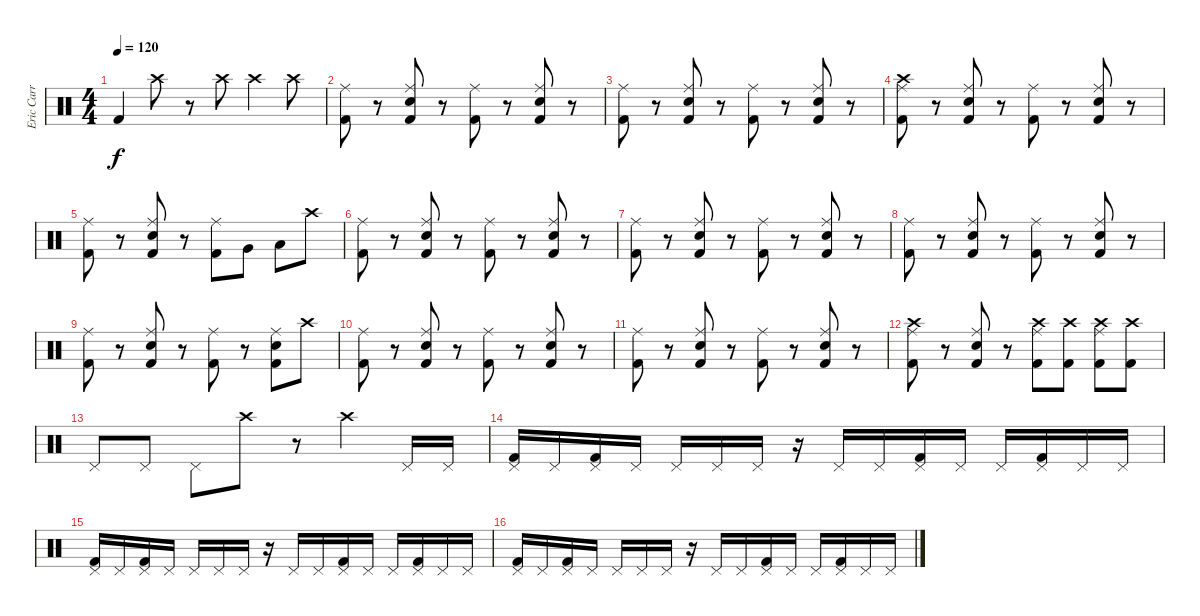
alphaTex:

\track ("Eric Carr" "Eric Carr") {instrument percussion}
\staff {score}
\articulation defaults
\ts (4 4)
\tempo 120
\clef neutral
\ks c "Kick (hit) 2".4{dy f} "Crash high (hit)".8
r.8 "Crash high (hit)".8 "Crash high (hit)".4 "Crash high (hit)".8 |
("Kick (hit) 2" "Ride (middle)").8 r.8 ("Kick (hit) 2" "Ride (middle)" "Snare (hit) 2").8 r.8 ("Kick (hit) 2" "Ride (middle)").8 r.8 ("Kick (hit) 2" "Ride (middle)" "Snare (hit) 2").8 r.8 |
("Kick (hit) 2" "Ride (middle)").8 r.8 ("Kick (hit) 2" "Ride (middle)" "Snare (hit) 2").8 r.8 ("Kick (hit) 2" "Ride (middle)").8 r.8 ("Kick (hit) 2" "Ride (middle)" "Snare (hit) 2").8 r.8 |
("Kick (hit) 2" "Ride (middle)" "Crash high (hit)").8 r.8 ("Kick (hit) 2" "Ride (middle)" "Snare (hit) 2").8 r.8 ("Kick (hit) 2" "Ride (middle)").8 r.8 ("Kick (hit) 2" "Ride (middle)" "Snare (hit) 2").8 r.8 |
("Kick (hit) 2" "Ride (middle)").8 r.8 ("Kick (hit) 2" "Ride (middle)" "Snare (hit) 2").8 r.8 ("Kick (hit) 2" "Ride (middle)").8 "Very Low Tom (hit)".8 "Low Tom (hit)".8 "Crash high (hit)".8 |
("Kick (hit) 2" "Ride (middle)").8 r.8 ("Kick (hit) 2" "Ride (middle)" "Snare (hit) 2").8 r.8 ("Kick (hit) 2" "Ride (middle)").8 r.8 ("Kick (hit) 2" "Ride (middle)" "Snare (hit) 2").8 r.8 |
("Kick (hit) 2" "Ride (middle)").8 r.8 ("Kick (hit) 2" "Ride (middle)" "Snare (hit) 2").8 r.8 ("Kick (hit) 2" "Ride (middle)").8 r.8 ("Kick (hit) 2" "Ride (middle)" "Snare (hit) 2").8 r.8 |
("Kick (hit) 2" "Ride (middle)").8 r.8 ("Kick (hit) 2" "Ride (middle)" "Snare (hit) 2").8 r.8 ("Kick (hit) 2" "Ride (middle)").8 r.8 ("Kick (hit) 2" "Ride (middle)" "Snare (hit) 2").8 r.8 |
("Kick (hit) 2" "Ride (middle)").8 r.8 ("Kick (hit) 2" "Ride (middle)" "Snare (hit) 2").8 r.8 ("Kick (hit) 2" "Ride (middle)").8 r.8 ("Kick (hit) 2" "Ride (middle)" "Snare (hit) 2").8 "Crash high (hit)".8 |
("Kick (hit) 2" "Ride (middle)").8 r.8 ("Kick (hit) 2" "Ride (middle)" "Snare (hit) 2").8 r.8 ("Kick (hit) 2" "Ride (middle)").8 r.8 ("Kick (hit) 2" "Ride (middle)" "Snare (hit) 2").8 r.8 |
("Kick (hit) 2" "Ride (middle)").8 r.8 ("Kick (hit) 2" "Ride (middle)" "Snare (hit) 2").8 r.8 ("Kick (hit) 2" "Ride (middle)").8 r.8 ("Kick (hit) 2" "Ride (middle)" "Snare (hit) 2").8 r.8 |
("Kick (hit) 2" "Ride (middle)" "Crash high (hit)").8 r.8 ("Kick (hit) 2" "Ride (middle)" "Snare (hit) 2").8 r.8 ("Kick (hit) 2" "Ride (middle)" "Crash high (hit)").8 ("Kick (hit) 2" "Crash high (hit)").8 ("Kick (hit) 2" "Ride (middle)" "Crash high (hit)").8 ("Kick (hit) 2" "Crash high (hit)").8 |
"Pedal Hi-Hat (hit)".8 "Pedal Hi-Hat (hit)".8 "Pedal Hi-Hat (hit)".8 "Crash high (hit)".8 r.8 "Crash high (hit)".4 "Pedal Hi-Hat (hit)".16 "Pedal Hi-Hat (hit)".16 |
("Pedal Hi-Hat (hit)" "Kick (hit) 2").16 "Pedal Hi-Hat (hit)".16 ("Pedal Hi-Hat (hit)" "Kick (hit) 2").16 "Pedal Hi-Hat (hit)".16 "Pedal Hi-Hat (hit)".16 "Pedal Hi-Hat (hit)".16 "Pedal Hi-Hat (hit)".16 r.16 "Pedal Hi-Hat (hit)".16 "Pedal Hi-Hat (hit)".16 ("Pedal Hi-Hat (hit)" "Kick (hit) 2").16 "Pedal Hi-Hat (hit)".16 "Pedal Hi-Hat (hit)".16 ("Pedal Hi-Hat (hit)" "Kick (hit) 2").16 "Pedal Hi-Hat (hit)".16 "Pedal Hi-Hat (hit)".16 |
("Pedal Hi-Hat (hit)" "Kick (hit) 2").16 "Pedal Hi-Hat (hit)".16 ("Pedal Hi-Hat (hit)" "Kick (hit) 2").16 "Pedal Hi-Hat (hit)".16 "Pedal Hi-Hat (hit)".16 "Pedal Hi-Hat (hit)".16 "Pedal Hi-Hat (hit)".16 r.16 "Pedal Hi-Hat (hit)".16 "Pedal Hi-Hat (hit)".16 ("Pedal Hi-Hat (hit)" "Kick (hit) 2").16 "Pedal Hi-Hat (hit)".16 "Pedal Hi-Hat (hit)".16 ("Pedal Hi-Hat (hit)" "Kick (hit) 2").16 "Pedal Hi-Hat (hit)".16 "Pedal Hi-Hat (hit)".16 |
("Pedal Hi-Hat (hit)" "Kick (hit) 2").16 "Pedal Hi-Hat (hit)".16 ("Pedal Hi-Hat (hit)" "Kick (hit) 2").16 "Pedal Hi-Hat (hit)".16 "Pedal Hi-Hat (hit)".16 "Pedal Hi-Hat (hit)".16 "Pedal Hi-Hat (hit)".16 r.16 "Pedal Hi-Hat (hit)".16 "Pedal Hi-Hat (hit)".16 ("Pedal Hi-Hat (hit)" "Kick (hit) 2").16 "Pedal Hi-Hat (hit)".16 "Pedal Hi-Hat (hit)".16 ("Pedal Hi-Hat (hit)" "Kick (hit) 2").16 "Pedal Hi-Hat (hit)".16 "Pedal Hi-Hat (hit)".16
